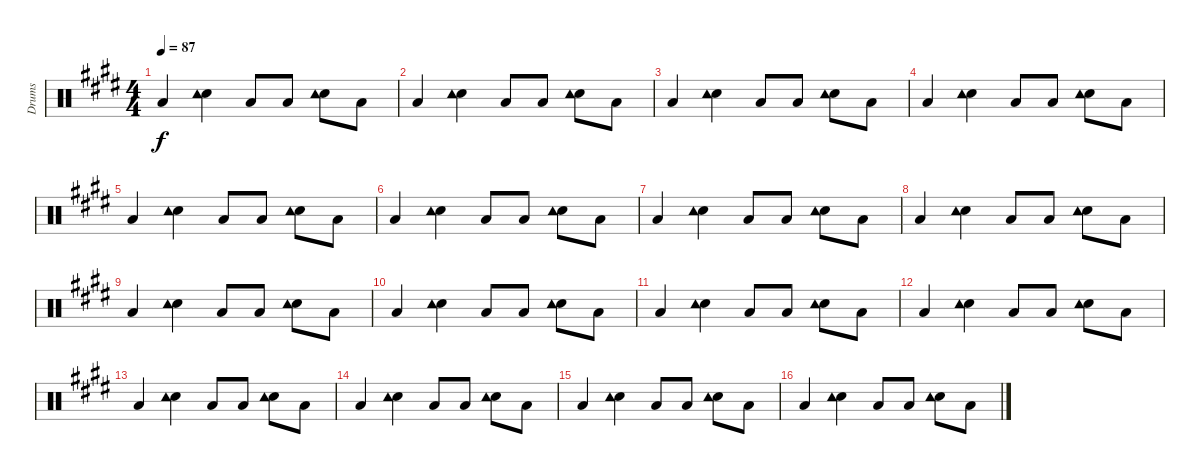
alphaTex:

\track ("Drums" "Drums") {instrument percussion}
\staff {score}
\articulation defaults
\ts (4 4)
\tempo 87
\clef neutral
\ks e "Low Floor Tom (hit)".4{dy f}
("Electric Snare (hit)" "Tambourine (hit)").4 "Low Floor Tom (hit)".8 "Low Floor Tom (hit)".8 ("Electric Snare (hit)" "Tambourine (hit)").8 "Low Floor Tom (hit)".8 |
"Low Floor Tom (hit)".4 ("Electric Snare (hit)" "Tambourine (hit)").4 "Low Floor Tom (hit)".8 "Low Floor Tom (hit)".8 ("Electric Snare (hit)" "Tambourine (hit)").8 "Low Floor Tom (hit)".8 |
"Low Floor Tom (hit)".4 ("Electric Snare (hit)" "Tambourine (hit)").4 "Low Floor Tom (hit)".8 "Low Floor Tom (hit)".8 ("Electric Snare (hit)" "Tambourine (hit)").8 "Low Floor Tom (hit)".8 |
"Low Floor Tom (hit)".4 ("Electric Snare (hit)" "Tambourine (hit)").4 "Low Floor Tom (hit)".8 "Low Floor Tom (hit)".8 ("Electric Snare (hit)" "Tambourine (hit)").8 "Low Floor Tom (hit)".8 |
"Low Floor Tom (hit)".4 ("Electric Snare (hit)" "Tambourine (hit)").4 "Low Floor Tom (hit)".8 "Low Floor Tom (hit)".8 ("Electric Snare (hit)" "Tambourine (hit)").8 "Low Floor Tom (hit)".8 |
"Low Floor Tom (hit)".4 ("Electric Snare (hit)" "Tambourine (hit)").4 "Low Floor Tom (hit)".8 "Low Floor Tom (hit)".8 ("Electric Snare (hit)" "Tambourine (hit)").8 "Low Floor Tom (hit)".8 |
"Low Floor Tom (hit)".4 ("Electric Snare (hit)" "Tambourine (hit)").4 "Low Floor Tom (hit)".8 "Low Floor Tom (hit)".8 ("Electric Snare (hit)" "Tambourine (hit)").8 "Low Floor Tom (hit)".8 |
"Low Floor Tom (hit)".4 ("Electric Snare (hit)" "Tambourine (hit)").4 "Low Floor Tom (hit)".8 "Low Floor Tom (hit)".8 ("Electric Snare (hit)" "Tambourine (hit)").8 "Low Floor Tom (hit)".8 |
"Low Floor Tom (hit)".4 ("Electric Snare (hit)" "Tambourine (hit)").4 "Low Floor Tom (hit)".8 "Low Floor Tom (hit)".8 ("Electric Snare (hit)" "Tambourine (hit)").8 "Low Floor Tom (hit)".8 |
"Low Floor Tom (hit)".4 ("Electric Snare (hit)" "Tambourine (hit)").4 "Low Floor Tom (hit)".8 "Low Floor Tom (hit)".8 ("Electric Snare (hit)" "Tambourine (hit)").8 "Low Floor Tom (hit)".8 |
"Low Floor Tom (hit)".4 ("Electric Snare (hit)" "Tambourine (hit)").4 "Low Floor Tom (hit)".8 "Low Floor Tom (hit)".8 ("Electric Snare (hit)" "Tambourine (hit)").8 "Low Floor Tom (hit)".8 |
"Low Floor Tom (hit)".4 ("Electric Snare (hit)" "Tambourine (hit)").4 "Low Floor Tom (hit)".8 "Low Floor Tom (hit)".8 ("Electric Snare (hit)" "Tambourine (hit)").8 "Low Floor Tom (hit)".8 |
"Low Floor Tom (hit)".4 ("Electric Snare (hit)" "Tambourine (hit)").4 "Low Floor Tom (hit)".8 "Low Floor Tom (hit)".8 ("Electric Snare (hit)" "Tambourine (hit)").8 "Low Floor Tom (hit)".8 |
"Low Floor Tom (hit)".4 ("Electric Snare (hit)" "Tambourine (hit)").4 "Low Floor Tom (hit)".8 "Low Floor Tom (hit)".8 ("Electric Snare (hit)" "Tambourine (hit)").8 "Low Floor Tom (hit)".8 |
"Low Floor Tom (hit)".4 ("Electric Snare (hit)" "Tambourine (hit)").4 "Low Floor Tom (hit)".8 "Low Floor Tom (hit)".8 ("Electric Snare (hit)" "Tambourine (hit)").8 "Low Floor Tom (hit)".8 |
"Low Floor Tom (hit)".4 ("Electric Snare (hit)" "Tambourine (hit)").4 "Low Floor Tom (hit)".8 "Low Floor Tom (hit)".8 ("Electric Snare (hit)" "Tambourine (hit)").8 "Low Floor Tom (hit)".8
